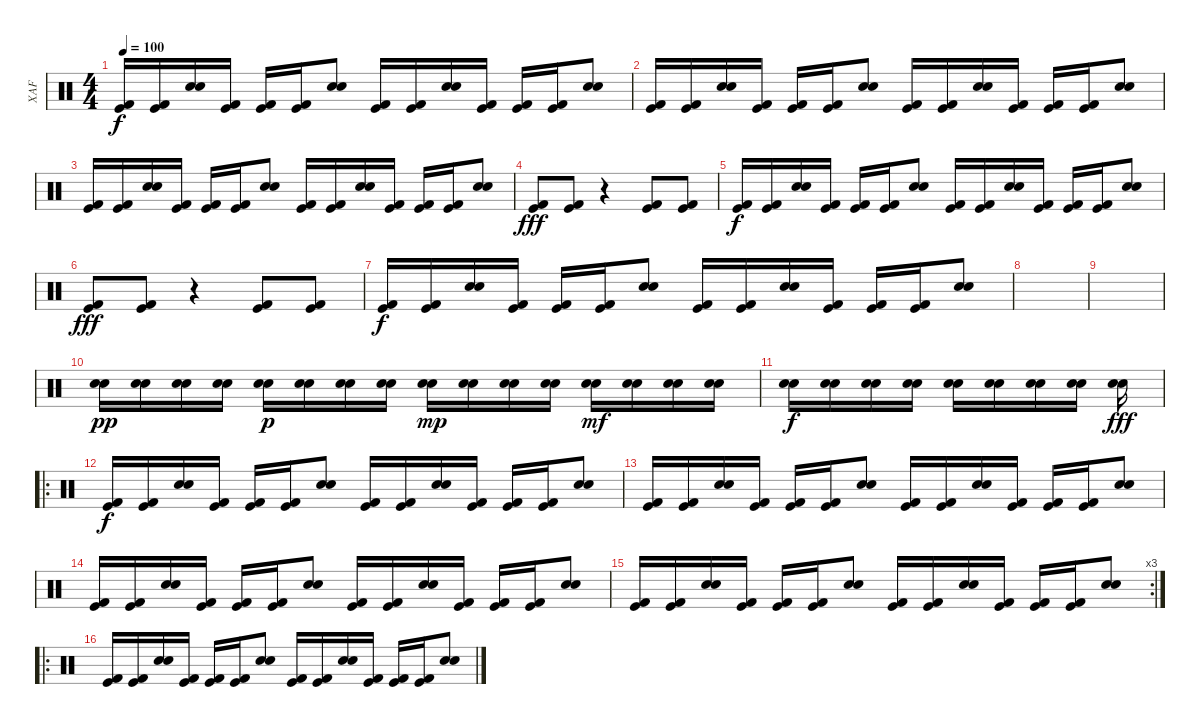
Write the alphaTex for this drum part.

\track ("XAF" "XAF") {instrument percussion}
\staff {score}
\articulation defaults
\ts (4 4)
\tempo 100
\clef neutral
\ks c
("Kick (hit) 2" "Kick (hit)").16{dy f} ("Kick (hit) 2" "Kick (hit)").16 ("Electric Snare (hit)" "Snare (hit) 2").16 ("Kick (hit) 2" "Kick (hit)").16 ("Kick (hit) 2" "Kick (hit)").16 ("Kick (hit) 2" "Kick (hit)").16 ("Electric Snare (hit)" "Snare (hit) 2").8 ("Kick (hit) 2" "Kick (hit)").16 ("Kick (hit) 2" "Kick (hit)").16 ("Electric Snare (hit)" "Snare (hit) 2").16 ("Kick (hit) 2" "Kick (hit)").16 ("Kick (hit) 2" "Kick (hit)").16 ("Kick (hit) 2" "Kick (hit)").16 ("Electric Snare (hit)" "Snare (hit) 2").8 |
("Kick (hit) 2" "Kick (hit)").16 ("Kick (hit) 2" "Kick (hit)").16 ("Electric Snare (hit)" "Snare (hit) 2").16 ("Kick (hit) 2" "Kick (hit)").16 ("Kick (hit) 2" "Kick (hit)").16 ("Kick (hit) 2" "Kick (hit)").16 ("Electric Snare (hit)" "Snare (hit) 2").8 ("Kick (hit) 2" "Kick (hit)").16 ("Kick (hit) 2" "Kick (hit)").16 ("Electric Snare (hit)" "Snare (hit) 2").16 ("Kick (hit) 2" "Kick (hit)").16 ("Kick (hit) 2" "Kick (hit)").16 ("Kick (hit) 2" "Kick (hit)").16 ("Electric Snare (hit)" "Snare (hit) 2").8 |
("Kick (hit) 2" "Kick (hit)").16 ("Kick (hit) 2" "Kick (hit)").16 ("Electric Snare (hit)" "Snare (hit) 2").16 ("Kick (hit) 2" "Kick (hit)").16 ("Kick (hit) 2" "Kick (hit)").16 ("Kick (hit) 2" "Kick (hit)").16 ("Electric Snare (hit)" "Snare (hit) 2").8 ("Kick (hit) 2" "Kick (hit)").16 ("Kick (hit) 2" "Kick (hit)").16 ("Electric Snare (hit)" "Snare (hit) 2").16 ("Kick (hit) 2" "Kick (hit)").16 ("Kick (hit) 2" "Kick (hit)").16 ("Kick (hit) 2" "Kick (hit)").16 ("Electric Snare (hit)" "Snare (hit) 2").8 |
("Kick (hit) 2" "Kick (hit)").8{dy fff} ("Kick (hit) 2" "Kick (hit)").8 r.4 ("Kick (hit) 2" "Kick (hit)").8 ("Kick (hit) 2" "Kick (hit)").8 |
("Kick (hit) 2" "Kick (hit)").16{dy f} ("Kick (hit) 2" "Kick (hit)").16 ("Electric Snare (hit)" "Snare (hit) 2").16 ("Kick (hit) 2" "Kick (hit)").16 ("Kick (hit) 2" "Kick (hit)").16 ("Kick (hit) 2" "Kick (hit)").16 ("Electric Snare (hit)" "Snare (hit) 2").8 ("Kick (hit) 2" "Kick (hit)").16 ("Kick (hit) 2" "Kick (hit)").16 ("Electric Snare (hit)" "Snare (hit) 2").16 ("Kick (hit) 2" "Kick (hit)").16 ("Kick (hit) 2" "Kick (hit)").16 ("Kick (hit) 2" "Kick (hit)").16 ("Electric Snare (hit)" "Snare (hit) 2").8 |
("Kick (hit) 2" "Kick (hit)").8{dy fff} ("Kick (hit) 2" "Kick (hit)").8 r.4 ("Kick (hit) 2" "Kick (hit)").8 ("Kick (hit) 2" "Kick (hit)").8 |
("Kick (hit) 2" "Kick (hit)").16{dy f} ("Kick (hit) 2" "Kick (hit)").16 ("Electric Snare (hit)" "Snare (hit) 2").16 ("Kick (hit) 2" "Kick (hit)").16 ("Kick (hit) 2" "Kick (hit)").16 ("Kick (hit) 2" "Kick (hit)").16 ("Electric Snare (hit)" "Snare (hit) 2").8 ("Kick (hit) 2" "Kick (hit)").16 ("Kick (hit) 2" "Kick (hit)").16 ("Electric Snare (hit)" "Snare (hit) 2").16 ("Kick (hit) 2" "Kick (hit)").16 ("Kick (hit) 2" "Kick (hit)").16 ("Kick (hit) 2" "Kick (hit)").16 ("Electric Snare (hit)" "Snare (hit) 2").8 |
|
|
("Electric Snare (hit)" "Snare (hit) 2").16{dy pp} ("Electric Snare (hit)" "Snare (hit) 2").16 ("Electric Snare (hit)" "Snare (hit) 2").16 ("Electric Snare (hit)" "Snare (hit) 2").16 ("Electric Snare (hit)" "Snare (hit) 2").16{dy p} ("Electric Snare (hit)" "Snare (hit) 2").16 ("Electric Snare (hit)" "Snare (hit) 2").16 ("Electric Snare (hit)" "Snare (hit) 2").16 ("Electric Snare (hit)" "Snare (hit) 2").16{dy mp} ("Electric Snare (hit)" "Snare (hit) 2").16 ("Electric Snare (hit)" "Snare (hit) 2").16 ("Electric Snare (hit)" "Snare (hit) 2").16 ("Electric Snare (hit)" "Snare (hit) 2").16{dy mf} ("Electric Snare (hit)" "Snare (hit) 2").16 ("Electric Snare (hit)" "Snare (hit) 2").16 ("Electric Snare (hit)" "Snare (hit) 2").16 |
("Electric Snare (hit)" "Snare (hit) 2").16{dy f} ("Electric Snare (hit)" "Snare (hit) 2").16 ("Electric Snare (hit)" "Snare (hit) 2").16 ("Electric Snare (hit)" "Snare (hit) 2").16 ("Electric Snare (hit)" "Snare (hit) 2").16 ("Electric Snare (hit)" "Snare (hit) 2").16 ("Electric Snare (hit)" "Snare (hit) 2").16 ("Electric Snare (hit)" "Snare (hit) 2").16 ("Electric Snare (hit)" "Snare (hit) 2").16{dy fff} |
\ro
("Kick (hit) 2" "Kick (hit)").16{dy f} ("Kick (hit) 2" "Kick (hit)").16 ("Electric Snare (hit)" "Snare (hit) 2").16 ("Kick (hit) 2" "Kick (hit)").16 ("Kick (hit) 2" "Kick (hit)").16 ("Kick (hit) 2" "Kick (hit)").16 ("Electric Snare (hit)" "Snare (hit) 2").8 ("Kick (hit) 2" "Kick (hit)").16 ("Kick (hit) 2" "Kick (hit)").16 ("Electric Snare (hit)" "Snare (hit) 2").16 ("Kick (hit) 2" "Kick (hit)").16 ("Kick (hit) 2" "Kick (hit)").16 ("Kick (hit) 2" "Kick (hit)").16 ("Electric Snare (hit)" "Snare (hit) 2").8 |
("Kick (hit) 2" "Kick (hit)").16 ("Kick (hit) 2" "Kick (hit)").16 ("Electric Snare (hit)" "Snare (hit) 2").16 ("Kick (hit) 2" "Kick (hit)").16 ("Kick (hit) 2" "Kick (hit)").16 ("Kick (hit) 2" "Kick (hit)").16 ("Electric Snare (hit)" "Snare (hit) 2").8 ("Kick (hit) 2" "Kick (hit)").16 ("Kick (hit) 2" "Kick (hit)").16 ("Electric Snare (hit)" "Snare (hit) 2").16 ("Kick (hit) 2" "Kick (hit)").16 ("Kick (hit) 2" "Kick (hit)").16 ("Kick (hit) 2" "Kick (hit)").16 ("Electric Snare (hit)" "Snare (hit) 2").8 |
("Kick (hit) 2" "Kick (hit)").16 ("Kick (hit) 2" "Kick (hit)").16 ("Electric Snare (hit)" "Snare (hit) 2").16 ("Kick (hit) 2" "Kick (hit)").16 ("Kick (hit) 2" "Kick (hit)").16 ("Kick (hit) 2" "Kick (hit)").16 ("Electric Snare (hit)" "Snare (hit) 2").8 ("Kick (hit) 2" "Kick (hit)").16 ("Kick (hit) 2" "Kick (hit)").16 ("Electric Snare (hit)" "Snare (hit) 2").16 ("Kick (hit) 2" "Kick (hit)").16 ("Kick (hit) 2" "Kick (hit)").16 ("Kick (hit) 2" "Kick (hit)").16 ("Electric Snare (hit)" "Snare (hit) 2").8 |
\rc 3
("Kick (hit) 2" "Kick (hit)").16 ("Kick (hit) 2" "Kick (hit)").16 ("Electric Snare (hit)" "Snare (hit) 2").16 ("Kick (hit) 2" "Kick (hit)").16 ("Kick (hit) 2" "Kick (hit)").16 ("Kick (hit) 2" "Kick (hit)").16 ("Electric Snare (hit)" "Snare (hit) 2").8 ("Kick (hit) 2" "Kick (hit)").16 ("Kick (hit) 2" "Kick (hit)").16 ("Electric Snare (hit)" "Snare (hit) 2").16 ("Kick (hit) 2" "Kick (hit)").16 ("Kick (hit) 2" "Kick (hit)").16 ("Kick (hit) 2" "Kick (hit)").16 ("Electric Snare (hit)" "Snare (hit) 2").8 |
\ro
("Kick (hit) 2" "Kick (hit)").16 ("Kick (hit) 2" "Kick (hit)").16 ("Electric Snare (hit)" "Snare (hit) 2").16 ("Kick (hit) 2" "Kick (hit)").16 ("Kick (hit) 2" "Kick (hit)").16 ("Kick (hit) 2" "Kick (hit)").16 ("Electric Snare (hit)" "Snare (hit) 2").8 ("Kick (hit) 2" "Kick (hit)").16 ("Kick (hit) 2" "Kick (hit)").16 ("Electric Snare (hit)" "Snare (hit) 2").16 ("Kick (hit) 2" "Kick (hit)").16 ("Kick (hit) 2" "Kick (hit)").16 ("Kick (hit) 2" "Kick (hit)").16 ("Electric Snare (hit)" "Snare (hit) 2").8
